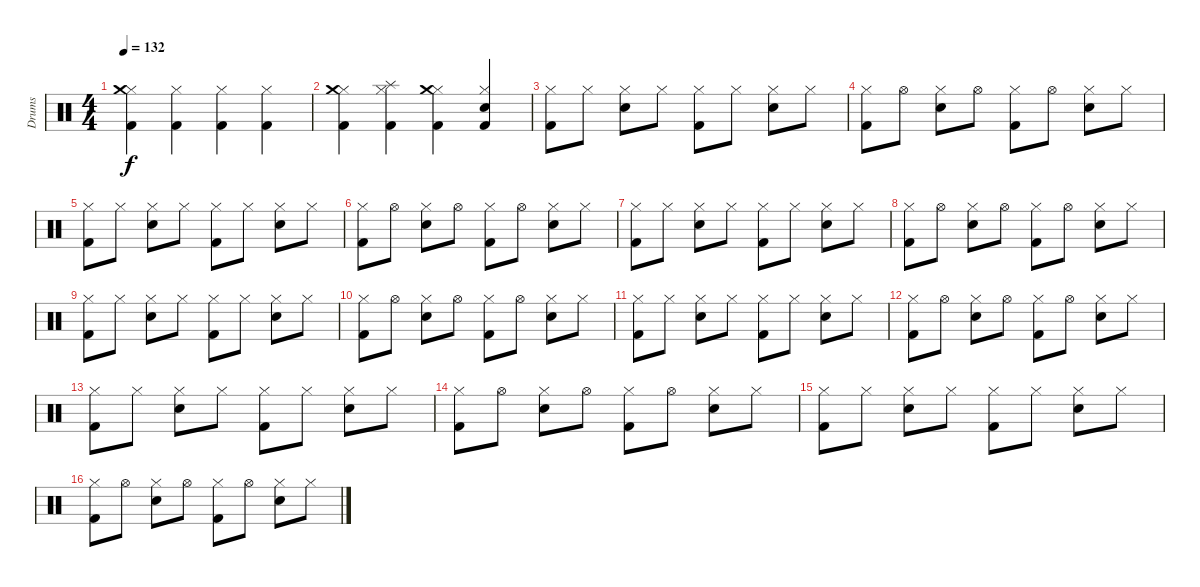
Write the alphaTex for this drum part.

\track ("Drums" "Drums") {instrument percussion}
\staff {score}
\articulation defaults
\ts (4 4)
\tempo 132
\clef neutral
\ks c
("Kick (hit) 2" "Hi-Hat (closed)" "Crash medium (hit)").4{dy f} ("Kick (hit) 2" "Hi-Hat (closed)").4 ("Kick (hit) 2" "Hi-Hat (closed)").4 ("Kick (hit) 2" "Hi-Hat (closed)").4 |
("Kick (hit) 2" "Hi-Hat (closed)" "Crash medium (hit)").4 ("Kick (hit) 2" "Hi-Hat (closed)" "Splash (hit)").4 ("Kick (hit) 2" "Hi-Hat (closed)" "Crash medium (hit)").4 ("Kick (hit) 2" "Electric Snare (hit)" "Hi-Hat (closed)").4 |
("Kick (hit) 2" "Hi-Hat (closed)").8 "Hi-Hat (closed)".8 ("Electric Snare (hit)" "Hi-Hat (closed)").8 "Hi-Hat (closed)".8 ("Kick (hit) 2" "Hi-Hat (closed)").8 "Hi-Hat (closed)".8 ("Electric Snare (hit)" "Hi-Hat (closed)").8 "Hi-Hat (closed)".8 |
("Kick (hit) 2" "Hi-Hat (closed)").8 "Hi-Hat (open)".8 ("Electric Snare (hit)" "Hi-Hat (closed)").8 "Hi-Hat (open)".8 ("Kick (hit) 2" "Hi-Hat (closed)").8 "Hi-Hat (open)".8 ("Electric Snare (hit)" "Hi-Hat (closed)").8 "Hi-Hat (closed)".8 |
("Kick (hit) 2" "Hi-Hat (closed)").8 "Hi-Hat (closed)".8 ("Electric Snare (hit)" "Hi-Hat (closed)").8 "Hi-Hat (closed)".8 ("Kick (hit) 2" "Hi-Hat (closed)").8 "Hi-Hat (closed)".8 ("Electric Snare (hit)" "Hi-Hat (closed)").8 "Hi-Hat (closed)".8 |
("Kick (hit) 2" "Hi-Hat (closed)").8 "Hi-Hat (open)".8 ("Electric Snare (hit)" "Hi-Hat (closed)").8 "Hi-Hat (open)".8 ("Kick (hit) 2" "Hi-Hat (closed)").8 "Hi-Hat (open)".8 ("Electric Snare (hit)" "Hi-Hat (closed)").8 "Hi-Hat (closed)".8 |
("Kick (hit) 2" "Hi-Hat (closed)").8 "Hi-Hat (closed)".8 ("Electric Snare (hit)" "Hi-Hat (closed)").8 "Hi-Hat (closed)".8 ("Kick (hit) 2" "Hi-Hat (closed)").8 "Hi-Hat (closed)".8 ("Electric Snare (hit)" "Hi-Hat (closed)").8 "Hi-Hat (closed)".8 |
("Kick (hit) 2" "Hi-Hat (closed)").8 "Hi-Hat (open)".8 ("Electric Snare (hit)" "Hi-Hat (closed)").8 "Hi-Hat (open)".8 ("Kick (hit) 2" "Hi-Hat (closed)").8 "Hi-Hat (open)".8 ("Electric Snare (hit)" "Hi-Hat (closed)").8 "Hi-Hat (closed)".8 |
("Kick (hit) 2" "Hi-Hat (closed)").8 "Hi-Hat (closed)".8 ("Electric Snare (hit)" "Hi-Hat (closed)").8 "Hi-Hat (closed)".8 ("Kick (hit) 2" "Hi-Hat (closed)").8 "Hi-Hat (closed)".8 ("Electric Snare (hit)" "Hi-Hat (closed)").8 "Hi-Hat (closed)".8 |
("Kick (hit) 2" "Hi-Hat (closed)").8 "Hi-Hat (open)".8 ("Electric Snare (hit)" "Hi-Hat (closed)").8 "Hi-Hat (open)".8 ("Kick (hit) 2" "Hi-Hat (closed)").8 "Hi-Hat (open)".8 ("Electric Snare (hit)" "Hi-Hat (closed)").8 "Hi-Hat (closed)".8 |
("Kick (hit) 2" "Hi-Hat (closed)").8 "Hi-Hat (closed)".8 ("Electric Snare (hit)" "Hi-Hat (closed)").8 "Hi-Hat (closed)".8 ("Kick (hit) 2" "Hi-Hat (closed)").8 "Hi-Hat (closed)".8 ("Electric Snare (hit)" "Hi-Hat (closed)").8 "Hi-Hat (closed)".8 |
("Kick (hit) 2" "Hi-Hat (closed)").8 "Hi-Hat (open)".8 ("Electric Snare (hit)" "Hi-Hat (closed)").8 "Hi-Hat (open)".8 ("Kick (hit) 2" "Hi-Hat (closed)").8 "Hi-Hat (open)".8 ("Electric Snare (hit)" "Hi-Hat (closed)").8 "Hi-Hat (closed)".8 |
("Kick (hit) 2" "Hi-Hat (closed)").8 "Hi-Hat (closed)".8 ("Electric Snare (hit)" "Hi-Hat (closed)").8 "Hi-Hat (closed)".8 ("Kick (hit) 2" "Hi-Hat (closed)").8 "Hi-Hat (closed)".8 ("Electric Snare (hit)" "Hi-Hat (closed)").8 "Hi-Hat (closed)".8 |
("Kick (hit) 2" "Hi-Hat (closed)").8 "Hi-Hat (open)".8 ("Electric Snare (hit)" "Hi-Hat (closed)").8 "Hi-Hat (open)".8 ("Kick (hit) 2" "Hi-Hat (closed)").8 "Hi-Hat (open)".8 ("Electric Snare (hit)" "Hi-Hat (closed)").8 "Hi-Hat (closed)".8 |
("Kick (hit) 2" "Hi-Hat (closed)").8 "Hi-Hat (closed)".8 ("Electric Snare (hit)" "Hi-Hat (closed)").8 "Hi-Hat (closed)".8 ("Kick (hit) 2" "Hi-Hat (closed)").8 "Hi-Hat (closed)".8 ("Electric Snare (hit)" "Hi-Hat (closed)").8 "Hi-Hat (closed)".8 |
("Kick (hit) 2" "Hi-Hat (closed)").8 "Hi-Hat (open)".8 ("Electric Snare (hit)" "Hi-Hat (closed)").8 "Hi-Hat (open)".8 ("Kick (hit) 2" "Hi-Hat (closed)").8 "Hi-Hat (open)".8 ("Electric Snare (hit)" "Hi-Hat (closed)").8 "Hi-Hat (closed)".8
